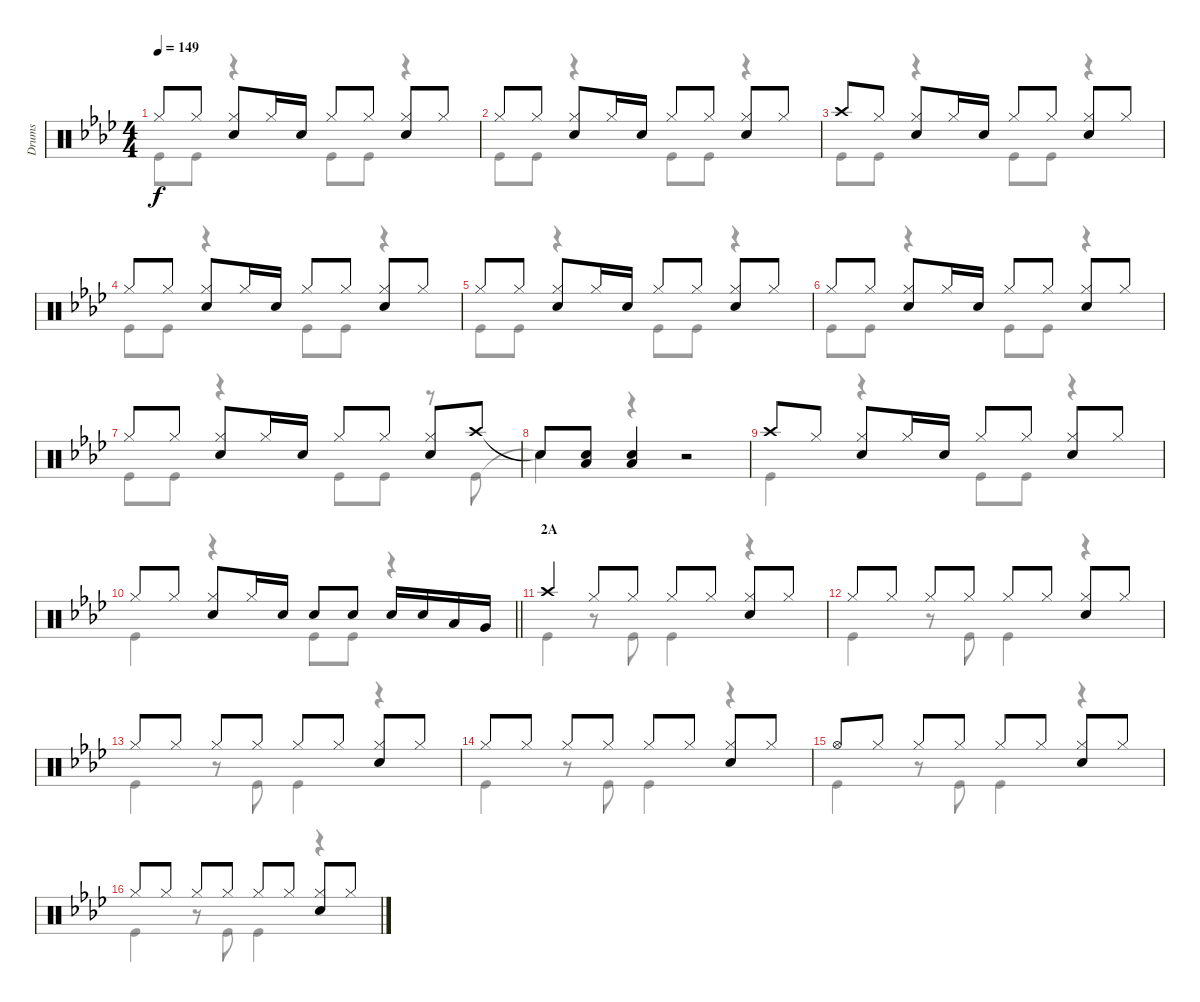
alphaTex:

\track ("Drums" "Drums") {instrument percussion}
\staff {score}
\articulation defaults
\voice
\ts (4 4)
\tempo 149
\clef neutral
\ks ab "Hi-Hat (closed)".8{dy f} "Hi-Hat (closed)".8
("Hi-Hat (closed)" "Snare (hit) 2").8 "Hi-Hat (closed)".16 "Snare (hit) 2".16 "Hi-Hat (closed)".8 "Hi-Hat (closed)".8 ("Hi-Hat (closed)" "Snare (hit) 2").8 "Hi-Hat (closed)".8 |
"Hi-Hat (closed)".8 "Hi-Hat (closed)".8 ("Hi-Hat (closed)" "Snare (hit) 2").8 "Hi-Hat (closed)".16 "Snare (hit) 2".16 "Hi-Hat (closed)".8 "Hi-Hat (closed)".8 ("Hi-Hat (closed)" "Snare (hit) 2").8 "Hi-Hat (closed)".8 |
"Crash high (hit)".8 "Hi-Hat (closed)".8 ("Hi-Hat (closed)" "Snare (hit) 2").8 "Hi-Hat (closed)".16 "Snare (hit) 2".16 "Hi-Hat (closed)".8 "Hi-Hat (closed)".8 ("Hi-Hat (closed)" "Snare (hit) 2").8 "Hi-Hat (closed)".8 |
"Hi-Hat (closed)".8 "Hi-Hat (closed)".8 ("Hi-Hat (closed)" "Snare (hit) 2").8 "Hi-Hat (closed)".16 "Snare (hit) 2".16 "Hi-Hat (closed)".8 "Hi-Hat (closed)".8 ("Hi-Hat (closed)" "Snare (hit) 2").8 "Hi-Hat (closed)".8 |
"Hi-Hat (closed)".8 "Hi-Hat (closed)".8 ("Hi-Hat (closed)" "Snare (hit) 2").8 "Hi-Hat (closed)".16 "Snare (hit) 2".16 "Hi-Hat (closed)".8 "Hi-Hat (closed)".8 ("Hi-Hat (closed)" "Snare (hit) 2").8 "Hi-Hat (closed)".8 |
"Hi-Hat (closed)".8 "Hi-Hat (closed)".8 ("Hi-Hat (closed)" "Snare (hit) 2").8 "Hi-Hat (closed)".16 "Snare (hit) 2".16 "Hi-Hat (closed)".8 "Hi-Hat (closed)".8 ("Hi-Hat (closed)" "Snare (hit) 2").8 "Hi-Hat (closed)".8 |
"Hi-Hat (closed)".8 "Hi-Hat (closed)".8 ("Hi-Hat (closed)" "Snare (hit) 2").8 "Hi-Hat (closed)".16 "Snare (hit) 2".16 "Hi-Hat (closed)".8 "Hi-Hat (closed)".8 ("Hi-Hat (closed)" "Snare (hit) 2").8 "Crash high (hit)".8 |
"Snare (hit)"{t}.8 ("Snare (hit) 2" "Low Tom (hit)").8 ("Snare (hit) 2" "Low Tom (hit)").4 r.2 |
"Crash high (hit)".8 "Hi-Hat (closed)".8 ("Hi-Hat (closed)" "Snare (hit) 2").8 "Hi-Hat (closed)".16 "Snare (hit) 2".16 "Hi-Hat (closed)".8 "Hi-Hat (closed)".8 ("Hi-Hat (closed)" "Snare (hit) 2").8 "Hi-Hat (closed)".8 |
\barLineRight lightlight "Hi-Hat (closed)".8 "Hi-Hat (closed)".8
("Hi-Hat (closed)" "Snare (hit) 2").8 "Hi-Hat (closed)".16 "Snare (hit) 2".16 "Snare (hit) 2".8 "Snare (hit) 2".8 "Snare (hit) 2".16 "Snare (hit) 2".16 "Low Tom (hit)".16 "Very Low Tom (hit)".16 |
\section ("" "2A")
"Crash high (hit)".4 "Hi-Hat (closed)".8 "Hi-Hat (closed)".8 "Hi-Hat (closed)".8 "Hi-Hat (closed)".8 ("Hi-Hat (closed)" "Snare (hit) 2").8 "Hi-Hat (closed)".8 |
"Hi-Hat (closed)".8 "Hi-Hat (closed)".8 "Hi-Hat (closed)".8 "Hi-Hat (closed)".8 "Hi-Hat (closed)".8 "Hi-Hat (closed)".8 ("Hi-Hat (closed)" "Snare (hit) 2").8 "Hi-Hat (closed)".8 |
"Hi-Hat (closed)".8 "Hi-Hat (closed)".8 "Hi-Hat (closed)".8 "Hi-Hat (closed)".8 "Hi-Hat (closed)".8 "Hi-Hat (closed)".8 ("Hi-Hat (closed)" "Snare (hit) 2").8 "Hi-Hat (closed)".8 |
"Hi-Hat (closed)".8 "Hi-Hat (closed)".8 "Hi-Hat (closed)".8 "Hi-Hat (closed)".8 "Hi-Hat (closed)".8 "Hi-Hat (closed)".8 ("Hi-Hat (closed)" "Snare (hit) 2").8 "Hi-Hat (closed)".8 |
"Hi-Hat (open)".8 "Hi-Hat (closed)".8 "Hi-Hat (closed)".8 "Hi-Hat (closed)".8 "Hi-Hat (closed)".8 "Hi-Hat (closed)".8 ("Hi-Hat (closed)" "Snare (hit) 2").8 "Hi-Hat (closed)".8 |
"Hi-Hat (closed)".8 "Hi-Hat (closed)".8 "Hi-Hat (closed)".8 "Hi-Hat (closed)".8 "Hi-Hat (closed)".8 "Hi-Hat (closed)".8 ("Hi-Hat (closed)" "Snare (hit) 2").8 "Hi-Hat (closed)".8
\voice
\clef neutral
\ottava regular
\simile none
\ks ab "Kick (hit)".8{dy f} "Kick (hit)".8
r.4 "Kick (hit)".8 "Kick (hit)".8 r.4 |
"Kick (hit)".8 "Kick (hit)".8 r.4 "Kick (hit)".8 "Kick (hit)".8 r.4 |
"Kick (hit)".8 "Kick (hit)".8 r.4 "Kick (hit)".8 "Kick (hit)".8 r.4 |
"Kick (hit)".8 "Kick (hit)".8 r.4 "Kick (hit)".8 "Kick (hit)".8 r.4 |
"Kick (hit)".8 "Kick (hit)".8 r.4 "Kick (hit)".8 "Kick (hit)".8 r.4 |
"Kick (hit)".8 "Kick (hit)".8 r.4 "Kick (hit)".8 "Kick (hit)".8 r.4 |
"Kick (hit)".8 "Kick (hit)".8 r.4 "Kick (hit)".8 "Kick (hit)".8 r.8 "Kick (hit)".8 |
"Snare (hit)"{t}.4 r.4 r.2 |
"Kick (hit)".4 r.4 "Kick (hit)".8 "Kick (hit)".8 r.4 |
\barLineRight lightlight "Kick (hit)".4
r.4 "Kick (hit)".8 "Kick (hit)".8 r.4 |
"Kick (hit)".4 r.8 "Kick (hit)".8 "Kick (hit)".4 r.4 |
"Kick (hit)".4 r.8 "Kick (hit)".8 "Kick (hit)".4 r.4 |
"Kick (hit)".4 r.8 "Kick (hit)".8 "Kick (hit)".4 r.4 |
"Kick (hit)".4 r.8 "Kick (hit)".8 "Kick (hit)".4 r.4 |
"Kick (hit)".4 r.8 "Kick (hit)".8 "Kick (hit)".4 r.4 |
"Kick (hit)".4 r.8 "Kick (hit)".8 "Kick (hit)".4 r.4
